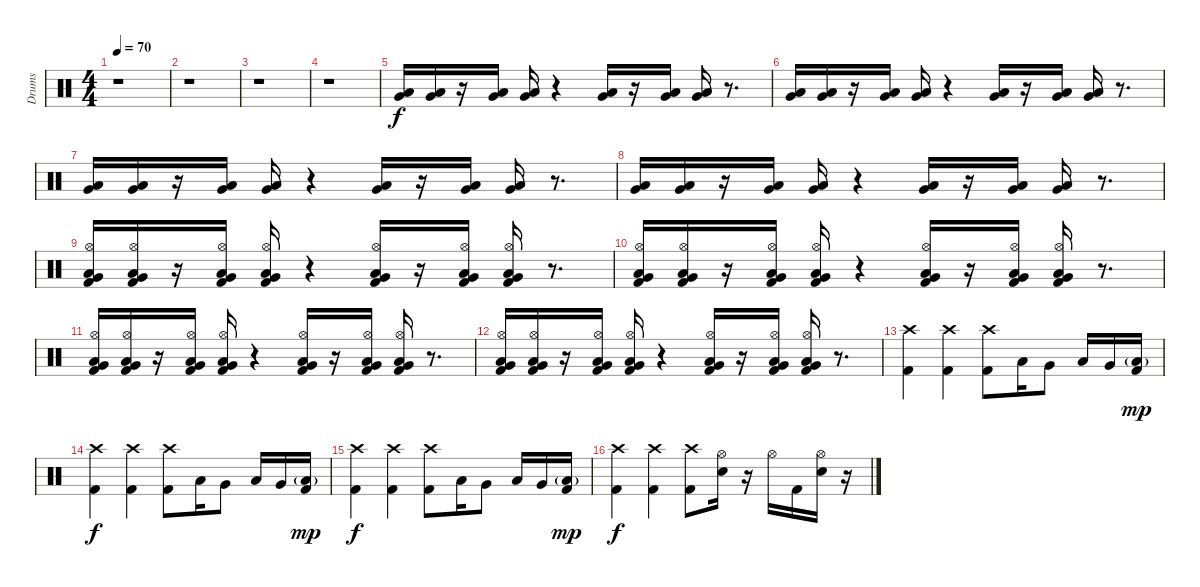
\track ("Drums" "Drums") {instrument percussion}
\staff {score}
\articulation defaults
\ts (4 4)
\tempo 70
\clef neutral
\ks c
r.1{dy f} |
r.1 |
r.1 |
r.1 |
("Very Low Tom (hit)" "Low Floor Tom (hit)").16 ("Very Low Tom (hit)" "Low Floor Tom (hit)").16 r.16 ("Very Low Tom (hit)" "Low Floor Tom (hit)").16 ("Very Low Tom (hit)" "Low Floor Tom (hit)").16 r.4 ("Very Low Tom (hit)" "Low Floor Tom (hit)").16 r.16 ("Very Low Tom (hit)" "Low Floor Tom (hit)").16 ("Very Low Tom (hit)" "Low Floor Tom (hit)").16 r.8{d} |
("Very Low Tom (hit)" "Low Floor Tom (hit)").16 ("Very Low Tom (hit)" "Low Floor Tom (hit)").16 r.16 ("Very Low Tom (hit)" "Low Floor Tom (hit)").16 ("Very Low Tom (hit)" "Low Floor Tom (hit)").16 r.4 ("Very Low Tom (hit)" "Low Floor Tom (hit)").16 r.16 ("Very Low Tom (hit)" "Low Floor Tom (hit)").16 ("Very Low Tom (hit)" "Low Floor Tom (hit)").16 r.8{d} |
("Very Low Tom (hit)" "Low Floor Tom (hit)").16 ("Very Low Tom (hit)" "Low Floor Tom (hit)").16 r.16 ("Very Low Tom (hit)" "Low Floor Tom (hit)").16 ("Very Low Tom (hit)" "Low Floor Tom (hit)").16 r.4 ("Very Low Tom (hit)" "Low Floor Tom (hit)").16 r.16 ("Very Low Tom (hit)" "Low Floor Tom (hit)").16 ("Very Low Tom (hit)" "Low Floor Tom (hit)").16 r.8{d} |
("Very Low Tom (hit)" "Low Floor Tom (hit)").16 ("Very Low Tom (hit)" "Low Floor Tom (hit)").16 r.16 ("Very Low Tom (hit)" "Low Floor Tom (hit)").16 ("Very Low Tom (hit)" "Low Floor Tom (hit)").16 r.4 ("Very Low Tom (hit)" "Low Floor Tom (hit)").16 r.16 ("Very Low Tom (hit)" "Low Floor Tom (hit)").16 ("Very Low Tom (hit)" "Low Floor Tom (hit)").16 r.8{d} |
("Hi-Hat (open)" "Very Low Tom (hit)" "Kick (hit) 2" "Low Floor Tom (hit)").16 ("Hi-Hat (open)" "Very Low Tom (hit)" "Kick (hit) 2" "Low Floor Tom (hit)").16 r.16 ("Hi-Hat (open)" "Very Low Tom (hit)" "Kick (hit) 2" "Low Floor Tom (hit)").16 ("Hi-Hat (open)" "Very Low Tom (hit)" "Kick (hit) 2" "Low Floor Tom (hit)").16 r.4 ("Hi-Hat (open)" "Very Low Tom (hit)" "Kick (hit) 2" "Low Floor Tom (hit)").16 r.16 ("Hi-Hat (open)" "Very Low Tom (hit)" "Kick (hit) 2" "Low Floor Tom (hit)").16 ("Hi-Hat (open)" "Very Low Tom (hit)" "Kick (hit) 2" "Low Floor Tom (hit)").16 r.8{d} |
("Hi-Hat (open)" "Very Low Tom (hit)" "Kick (hit) 2" "Low Floor Tom (hit)").16 ("Hi-Hat (open)" "Very Low Tom (hit)" "Kick (hit) 2" "Low Floor Tom (hit)").16 r.16 ("Hi-Hat (open)" "Very Low Tom (hit)" "Kick (hit) 2" "Low Floor Tom (hit)").16 ("Hi-Hat (open)" "Very Low Tom (hit)" "Kick (hit) 2" "Low Floor Tom (hit)").16 r.4 ("Hi-Hat (open)" "Very Low Tom (hit)" "Kick (hit) 2" "Low Floor Tom (hit)").16 r.16 ("Hi-Hat (open)" "Very Low Tom (hit)" "Kick (hit) 2" "Low Floor Tom (hit)").16 ("Hi-Hat (open)" "Very Low Tom (hit)" "Kick (hit) 2" "Low Floor Tom (hit)").16 r.8{d} |
("Hi-Hat (open)" "Very Low Tom (hit)" "Kick (hit) 2" "Low Floor Tom (hit)").16 ("Hi-Hat (open)" "Very Low Tom (hit)" "Kick (hit) 2" "Low Floor Tom (hit)").16 r.16 ("Hi-Hat (open)" "Very Low Tom (hit)" "Kick (hit) 2" "Low Floor Tom (hit)").16 ("Hi-Hat (open)" "Very Low Tom (hit)" "Kick (hit) 2" "Low Floor Tom (hit)").16 r.4 ("Hi-Hat (open)" "Very Low Tom (hit)" "Kick (hit) 2" "Low Floor Tom (hit)").16 r.16 ("Hi-Hat (open)" "Very Low Tom (hit)" "Kick (hit) 2" "Low Floor Tom (hit)").16 ("Hi-Hat (open)" "Very Low Tom (hit)" "Kick (hit) 2" "Low Floor Tom (hit)").16 r.8{d} |
("Hi-Hat (open)" "Very Low Tom (hit)" "Kick (hit) 2" "Low Floor Tom (hit)").16 ("Hi-Hat (open)" "Very Low Tom (hit)" "Kick (hit) 2" "Low Floor Tom (hit)").16 r.16 ("Hi-Hat (open)" "Very Low Tom (hit)" "Kick (hit) 2" "Low Floor Tom (hit)").16 ("Hi-Hat (open)" "Very Low Tom (hit)" "Kick (hit) 2" "Low Floor Tom (hit)").16 r.4 ("Hi-Hat (open)" "Very Low Tom (hit)" "Kick (hit) 2" "Low Floor Tom (hit)").16 r.16 ("Hi-Hat (open)" "Very Low Tom (hit)" "Kick (hit) 2" "Low Floor Tom (hit)").16 ("Hi-Hat (open)" "Very Low Tom (hit)" "Kick (hit) 2" "Low Floor Tom (hit)").16 r.8{d} |
("Crash high (hit)" "Kick (hit) 2").4 ("Crash high (hit)" "Kick (hit) 2").4 ("Crash high (hit)" "Kick (hit) 2").8 "Low Floor Tom (hit)".16 "Very Low Tom (hit)".8 "Low Floor Tom (hit)".16 "Very Low Tom (hit)".16 ("Kick (hit) 2" "Low Floor Tom (hit)"{g}).16{dy mp} |
("Crash high (hit)" "Kick (hit) 2").4{dy f} ("Crash high (hit)" "Kick (hit) 2").4 ("Crash high (hit)" "Kick (hit) 2").8 "Low Floor Tom (hit)".16 "Very Low Tom (hit)".8 "Low Floor Tom (hit)".16 "Very Low Tom (hit)".16 ("Kick (hit) 2" "Low Floor Tom (hit)"{g}).16{dy mp} |
("Crash high (hit)" "Kick (hit) 2").4{dy f} ("Crash high (hit)" "Kick (hit) 2").4 ("Crash high (hit)" "Kick (hit) 2").8 "Low Floor Tom (hit)".16 "Very Low Tom (hit)".8 "Low Floor Tom (hit)".16 "Very Low Tom (hit)".16 ("Kick (hit) 2" "Low Floor Tom (hit)"{g}).16{dy mp} |
("Crash high (hit)" "Kick (hit) 2").4{dy f} ("Crash high (hit)" "Kick (hit) 2").4 ("Crash high (hit)" "Kick (hit) 2").8 ("Hi-Hat (open)" "Snare (hit) 2").16 r.16 "Hi-Hat (open)".16 "Kick (hit) 2".16 ("Hi-Hat (open)" "Snare (hit) 2").16 r.16
